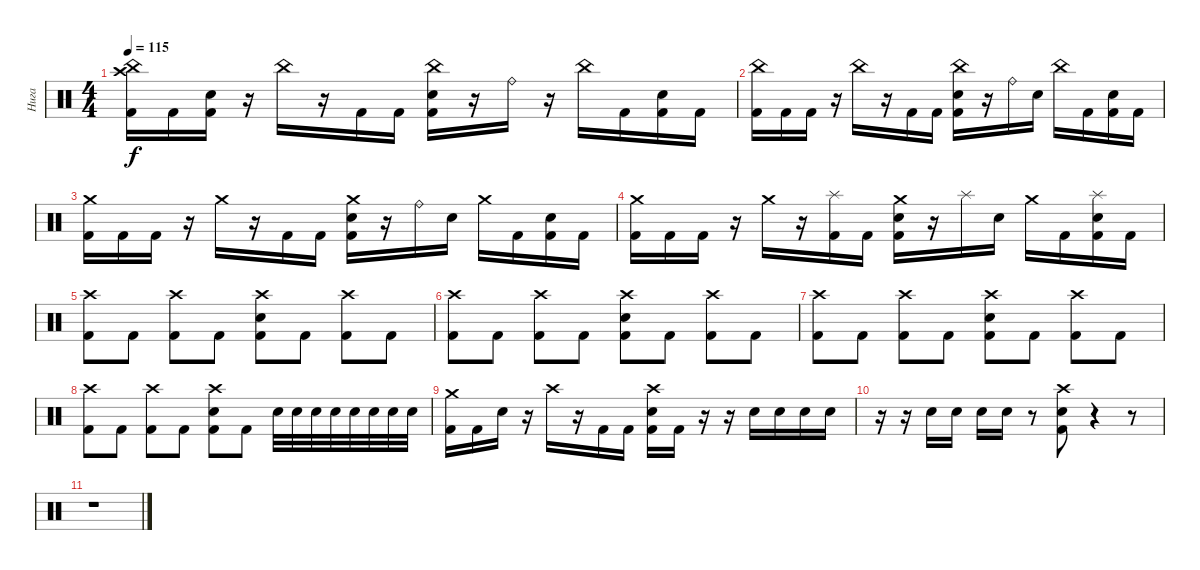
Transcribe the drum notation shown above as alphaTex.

\track ("Нига" "Нига") {instrument percussion}
\staff {score}
\articulation defaults
\ts (4 4)
\tempo 115
\clef neutral
\ks c
("China (hit)" "Crash high (hit)" "Kick (hit) 2").16{dy f} "Kick (hit) 2".16 ("Electric Snare (hit)" "Kick (hit) 2").16 r.16 "China (hit)".16 r.16 "Kick (hit) 2".16 "Kick (hit) 2".16 ("China (hit)" "Electric Snare (hit)" "Kick (hit) 2").16 r.16 "Ride (bell)".16 r.16 "China (hit)".16 "Kick (hit) 2".16 ("Electric Snare (hit)" "Kick (hit) 2").16 "Kick (hit) 2".16 |
("China (hit)" "Kick (hit) 2").16 "Kick (hit) 2".16 "Kick (hit) 2".16 r.16 "China (hit)".16 r.16 "Kick (hit) 2".16 "Kick (hit) 2".16 ("China (hit)" "Electric Snare (hit)" "Kick (hit) 2").16 r.16 "Ride (bell)".16 "Electric Snare (hit)".16 "China (hit)".16 "Kick (hit) 2".16 ("Electric Snare (hit)" "Kick (hit) 2").16 "Kick (hit) 2".16 |
("Crash medium (hit)" "Kick (hit) 2").16 "Kick (hit) 2".16 "Kick (hit) 2".16 r.16 "Crash medium (hit)".16 r.16 "Kick (hit) 2".16 "Kick (hit) 2".16 ("Crash medium (hit)" "Electric Snare (hit)" "Kick (hit) 2").16 r.16 "Ride (bell)".16 "Electric Snare (hit)".16 "Crash medium (hit)".16 "Kick (hit) 2".16 ("Electric Snare (hit)" "Kick (hit) 2").16 "Kick (hit) 2".16 |
("Crash medium (hit)" "Kick (hit) 2").16 "Kick (hit) 2".16 "Kick (hit) 2".16 r.16 "Crash medium (hit)".16 r.16 ("Splash (hit)" "Kick (hit) 2").16 "Kick (hit) 2".16 ("Crash medium (hit)" "Electric Snare (hit)" "Kick (hit) 2").16 r.16 "Splash (hit)".16 "Electric Snare (hit)".16 "Crash medium (hit)".16 "Kick (hit) 2".16 ("Splash (hit)" "Electric Snare (hit)" "Kick (hit) 2").16 "Kick (hit) 2".16 |
("Crash high (hit)" "Kick (hit) 2").8 "Kick (hit) 2".8 ("Crash high (hit)" "Kick (hit) 2").8 "Kick (hit) 2".8 ("Crash high (hit)" "Electric Snare (hit)" "Kick (hit) 2").8 "Kick (hit) 2".8 ("Crash high (hit)" "Kick (hit) 2").8 "Kick (hit) 2".8 |
("Crash high (hit)" "Kick (hit) 2").8 "Kick (hit) 2".8 ("Crash high (hit)" "Kick (hit) 2").8 "Kick (hit) 2".8 ("Crash high (hit)" "Electric Snare (hit)" "Kick (hit) 2").8 "Kick (hit) 2".8 ("Crash high (hit)" "Kick (hit) 2").8 "Kick (hit) 2".8 |
("Crash high (hit)" "Kick (hit) 2").8 "Kick (hit) 2".8 ("Crash high (hit)" "Kick (hit) 2").8 "Kick (hit) 2".8 ("Crash high (hit)" "Electric Snare (hit)" "Kick (hit) 2").8 "Kick (hit) 2".8 ("Crash high (hit)" "Kick (hit) 2").8 "Kick (hit) 2".8 |
("Crash high (hit)" "Kick (hit) 2").8 "Kick (hit) 2".8 ("Crash high (hit)" "Kick (hit) 2").8 "Kick (hit) 2".8 ("Crash high (hit)" "Electric Snare (hit)" "Kick (hit) 2").8 "Kick (hit) 2".8 "Electric Snare (hit)".32 "Electric Snare (hit)".32 "Electric Snare (hit)".32 "Electric Snare (hit)".32 "Electric Snare (hit)".32 "Electric Snare (hit)".32 "Electric Snare (hit)".32 "Electric Snare (hit)".32 |
("Crash medium (hit)" "Kick (hit) 2").16 "Kick (hit) 2".16 "Electric Snare (hit)".16 r.16 "Crash high (hit)".16 r.16 "Kick (hit) 2".16 "Kick (hit) 2".16 ("Crash high (hit)" "Electric Snare (hit)" "Kick (hit) 2").16 "Kick (hit) 2".16 r.16 r.16 "Electric Snare (hit)".16 "Electric Snare (hit)".16 "Electric Snare (hit)".16 "Electric Snare (hit)".16 |
r.16 r.16 "Electric Snare (hit)".16 "Electric Snare (hit)".16 "Electric Snare (hit)".16 "Electric Snare (hit)".16 r.8 ("Crash high (hit)" "Snare (hit) 2" "Kick (hit) 2").8 r.4 r.8 |
r.1
